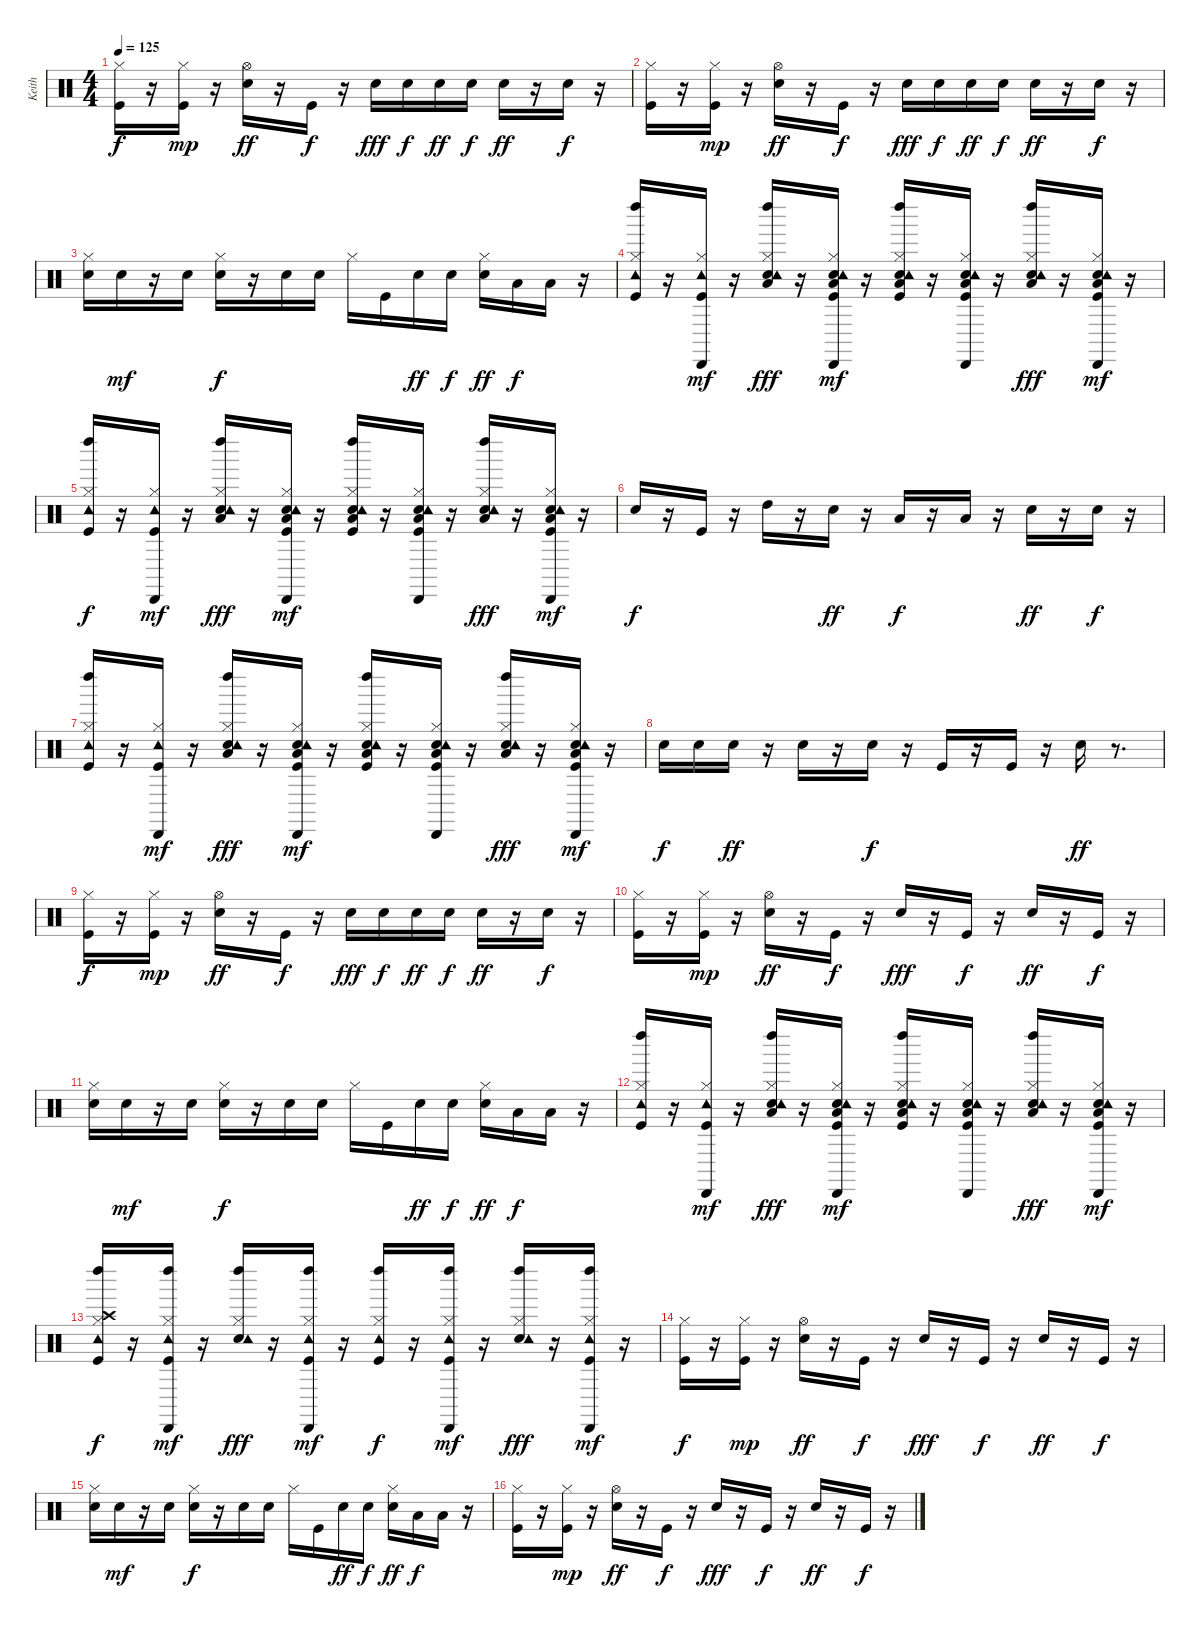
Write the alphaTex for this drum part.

\track ("Keith" "Keith") {instrument percussion}
\staff {score}
\articulation defaults
\ts (4 4)
\tempo 125
\clef neutral
\ks c
("Kick (hit)" "Hi-Hat (closed)").16{dy f} r.16 ("Kick (hit)" "Hi-Hat (closed)").16{dy mp} r.16 ("Snare (hit) 2" "Hi-Hat (open)").16{dy ff} r.16 "Kick (hit)".16{dy f} r.16 "Snare (hit) 2".16{dy fff} "Snare (hit) 2".16{dy f} "Snare (hit) 2".16{dy ff} "Snare (hit) 2".16{dy f} "Snare (hit) 2".16{dy ff} r.16 "Snare (hit) 2".16{dy f} r.16 |
("Kick (hit)" "Hi-Hat (closed)").16 r.16 ("Kick (hit)" "Hi-Hat (closed)").16{dy mp} r.16 ("Snare (hit) 2" "Hi-Hat (open)").16{dy ff} r.16 "Kick (hit)".16{dy f} r.16 "Snare (hit) 2".16{dy fff} "Snare (hit) 2".16{dy f} "Snare (hit) 2".16{dy ff} "Snare (hit) 2".16{dy f} "Snare (hit) 2".16{dy ff} r.16 "Snare (hit) 2".16{dy f} r.16 |
("Snare (hit) 2" "Hi-Hat (closed)").16 "Snare (hit) 2".16{dy mf} r.16 "Snare (hit) 2".16 ("Snare (hit) 2" "Hi-Hat (closed)").16{dy f} r.16 "Snare (hit) 2".16 "Snare (hit) 2".16 "Hi-Hat (closed)".16 "Kick (hit)".16 "Snare (hit) 2".16{dy ff} "Snare (hit) 2".16{dy f} ("Snare (hit) 2" "Hi-Hat (closed)").16{dy ff} "Low Tom (hit)".16{dy f} "Low Floor Tom (hit)".16 r.16 |
("Kick (hit)" "Hi-Hat (closed)" "Tambourine (hit)" "Left Maraca (hit)").16 r.16 ("Kick (hit)" "Hi-Hat (closed)" "Tambourine (hit)" "Cabasa (hit)").16{dy mf} r.16 ("Snare (hit) 2" "Hi-Hat (closed)" "Low Floor Tom (hit)" "Tambourine (hit)" "Left Maraca (hit)").16{dy fff} r.16 ("Kick (hit)" "Snare (hit) 2" "Hi-Hat (closed)" "Low Floor Tom (hit)" "Tambourine (hit)" "Cabasa (hit)").16{dy mf} r.16 ("Kick (hit)" "Snare (hit) 2" "Hi-Hat (closed)" "Low Floor Tom (hit)" "Tambourine (hit)" "Left Maraca (hit)").16 r.16 ("Kick (hit)" "Snare (hit) 2" "Hi-Hat (closed)" "Low Floor Tom (hit)" "Tambourine (hit)" "Cabasa (hit)").16 r.16 ("Snare (hit) 2" "Hi-Hat (closed)" "Low Floor Tom (hit)" "Tambourine (hit)" "Left Maraca (hit)").16{dy fff} r.16 ("Kick (hit)" "Snare (hit) 2" "Hi-Hat (closed)" "Low Floor Tom (hit)" "Tambourine (hit)" "Cabasa (hit)").16{dy mf} r.16 |
("Kick (hit)" "Hi-Hat (closed)" "Tambourine (hit)" "Left Maraca (hit)").16{dy f} r.16 ("Kick (hit)" "Hi-Hat (closed)" "Tambourine (hit)" "Cabasa (hit)").16{dy mf} r.16 ("Snare (hit) 2" "Hi-Hat (closed)" "Low Floor Tom (hit)" "Tambourine (hit)" "Left Maraca (hit)").16{dy fff} r.16 ("Kick (hit)" "Snare (hit) 2" "Hi-Hat (closed)" "Low Floor Tom (hit)" "Tambourine (hit)" "Cabasa (hit)").16{dy mf} r.16 ("Kick (hit)" "Snare (hit) 2" "Hi-Hat (closed)" "Low Floor Tom (hit)" "Tambourine (hit)" "Left Maraca (hit)").16 r.16 ("Kick (hit)" "Snare (hit) 2" "Hi-Hat (closed)" "Low Floor Tom (hit)" "Tambourine (hit)" "Cabasa (hit)").16 r.16 ("Snare (hit) 2" "Hi-Hat (closed)" "Low Floor Tom (hit)" "Tambourine (hit)" "Left Maraca (hit)").16{dy fff} r.16 ("Kick (hit)" "Snare (hit) 2" "Hi-Hat (closed)" "Low Floor Tom (hit)" "Tambourine (hit)" "Cabasa (hit)").16{dy mf} r.16 |
"Snare (hit) 2".16{dy f} r.16 "Kick (hit)".16 r.16 "High Tom (hit)".16 r.16 "Snare (hit) 2".16{dy ff} r.16 "Low Tom (hit)".16{dy f} r.16 "Low Tom (hit)".16 r.16 "Snare (hit) 2".16{dy ff} r.16 "Snare (hit) 2".16{dy f} r.16 |
("Kick (hit)" "Hi-Hat (closed)" "Tambourine (hit)" "Left Maraca (hit)").16 r.16 ("Kick (hit)" "Hi-Hat (closed)" "Tambourine (hit)" "Cabasa (hit)").16{dy mf} r.16 ("Snare (hit) 2" "Hi-Hat (closed)" "Low Floor Tom (hit)" "Tambourine (hit)" "Left Maraca (hit)").16{dy fff} r.16 ("Kick (hit)" "Snare (hit) 2" "Hi-Hat (closed)" "Low Floor Tom (hit)" "Tambourine (hit)" "Cabasa (hit)").16{dy mf} r.16 ("Kick (hit)" "Snare (hit) 2" "Hi-Hat (closed)" "Low Floor Tom (hit)" "Tambourine (hit)" "Left Maraca (hit)").16 r.16 ("Kick (hit)" "Snare (hit) 2" "Hi-Hat (closed)" "Low Floor Tom (hit)" "Tambourine (hit)" "Cabasa (hit)").16 r.16 ("Snare (hit) 2" "Hi-Hat (closed)" "Low Floor Tom (hit)" "Tambourine (hit)" "Left Maraca (hit)").16{dy fff} r.16 ("Kick (hit)" "Snare (hit) 2" "Hi-Hat (closed)" "Low Floor Tom (hit)" "Tambourine (hit)" "Cabasa (hit)").16{dy mf} r.16 |
"Snare (hit) 2".16{dy f} "Snare (hit) 2".16 "Snare (hit) 2".16{dy ff} r.16 "Snare (hit) 2".16 r.16 "Snare (hit) 2".16{dy f} r.16 "Kick (hit)".16 r.16 "Kick (hit)".16 r.16 "Snare (hit) 2".16{dy ff} r.8{d} |
("Kick (hit)" "Hi-Hat (closed)").16{dy f} r.16 ("Kick (hit)" "Hi-Hat (closed)").16{dy mp} r.16 ("Snare (hit) 2" "Hi-Hat (open)").16{dy ff} r.16 "Kick (hit)".16{dy f} r.16 "Snare (hit) 2".16{dy fff} "Snare (hit) 2".16{dy f} "Snare (hit) 2".16{dy ff} "Snare (hit) 2".16{dy f} "Snare (hit) 2".16{dy ff} r.16 "Snare (hit) 2".16{dy f} r.16 |
("Kick (hit)" "Hi-Hat (closed)").16 r.16 ("Kick (hit)" "Hi-Hat (closed)").16{dy mp} r.16 ("Snare (hit) 2" "Hi-Hat (open)").16{dy ff} r.16 "Kick (hit)".16{dy f} r.16 "Snare (hit) 2".16{dy fff} r.16 "Kick (hit)".16{dy f} r.16 "Snare (hit) 2".16{dy ff} r.16 "Kick (hit)".16{dy f} r.16 |
("Snare (hit) 2" "Hi-Hat (closed)").16 "Snare (hit) 2".16{dy mf} r.16 "Snare (hit) 2".16 ("Snare (hit) 2" "Hi-Hat (closed)").16{dy f} r.16 "Snare (hit) 2".16 "Snare (hit) 2".16 "Hi-Hat (closed)".16 "Kick (hit)".16 "Snare (hit) 2".16{dy ff} "Snare (hit) 2".16{dy f} ("Snare (hit) 2" "Hi-Hat (closed)").16{dy ff} "Low Tom (hit)".16{dy f} "Low Floor Tom (hit)".16 r.16 |
("Kick (hit)" "Hi-Hat (closed)" "Tambourine (hit)" "Left Maraca (hit)").16 r.16 ("Kick (hit)" "Hi-Hat (closed)" "Tambourine (hit)" "Cabasa (hit)").16{dy mf} r.16 ("Snare (hit) 2" "Hi-Hat (closed)" "Low Floor Tom (hit)" "Tambourine (hit)" "Left Maraca (hit)").16{dy fff} r.16 ("Kick (hit)" "Snare (hit) 2" "Hi-Hat (closed)" "Low Floor Tom (hit)" "Tambourine (hit)" "Cabasa (hit)").16{dy mf} r.16 ("Kick (hit)" "Snare (hit) 2" "Hi-Hat (closed)" "Low Floor Tom (hit)" "Tambourine (hit)" "Left Maraca (hit)").16 r.16 ("Kick (hit)" "Snare (hit) 2" "Hi-Hat (closed)" "Low Floor Tom (hit)" "Tambourine (hit)" "Cabasa (hit)").16 r.16 ("Snare (hit) 2" "Hi-Hat (closed)" "Low Floor Tom (hit)" "Tambourine (hit)" "Left Maraca (hit)").16{dy fff} r.16 ("Kick (hit)" "Snare (hit) 2" "Hi-Hat (closed)" "Low Floor Tom (hit)" "Tambourine (hit)" "Cabasa (hit)").16{dy mf} r.16 |
("Kick (hit)" "Hi-Hat (closed)" "Crash high (hit)" "Tambourine (hit)" "Left Maraca (hit)").16{dy f} r.16 ("Kick (hit)" "Hi-Hat (closed)" "Tambourine (hit)" "Left Maraca (hit)" "Cabasa (hit)").16{dy mf} r.16 ("Snare (hit) 2" "Hi-Hat (closed)" "Tambourine (hit)" "Left Maraca (hit)").16{dy fff} r.16 ("Kick (hit)" "Hi-Hat (closed)" "Tambourine (hit)" "Left Maraca (hit)" "Cabasa (hit)").16{dy mf} r.16 ("Kick (hit)" "Hi-Hat (closed)" "Tambourine (hit)" "Left Maraca (hit)").16{dy f} r.16 ("Kick (hit)" "Hi-Hat (closed)" "Tambourine (hit)" "Left Maraca (hit)" "Cabasa (hit)").16{dy mf} r.16 ("Snare (hit) 2" "Hi-Hat (closed)" "Tambourine (hit)" "Left Maraca (hit)").16{dy fff} r.16 ("Kick (hit)" "Hi-Hat (closed)" "Tambourine (hit)" "Left Maraca (hit)" "Cabasa (hit)").16{dy mf} r.16 |
("Kick (hit)" "Hi-Hat (closed)").16{dy f} r.16 ("Kick (hit)" "Hi-Hat (closed)").16{dy mp} r.16 ("Snare (hit) 2" "Hi-Hat (open)").16{dy ff} r.16 "Kick (hit)".16{dy f} r.16 "Snare (hit) 2".16{dy fff} r.16 "Kick (hit)".16{dy f} r.16 "Snare (hit) 2".16{dy ff} r.16 "Kick (hit)".16{dy f} r.16 |
("Snare (hit) 2" "Hi-Hat (closed)").16 "Snare (hit) 2".16{dy mf} r.16 "Snare (hit) 2".16 ("Snare (hit) 2" "Hi-Hat (closed)").16{dy f} r.16 "Snare (hit) 2".16 "Snare (hit) 2".16 "Hi-Hat (closed)".16 "Kick (hit)".16 "Snare (hit) 2".16{dy ff} "Snare (hit) 2".16{dy f} ("Snare (hit) 2" "Hi-Hat (closed)").16{dy ff} "Low Tom (hit)".16{dy f} "Low Floor Tom (hit)".16 r.16 |
("Kick (hit)" "Hi-Hat (closed)").16 r.16 ("Kick (hit)" "Hi-Hat (closed)").16{dy mp} r.16 ("Snare (hit) 2" "Hi-Hat (open)").16{dy ff} r.16 "Kick (hit)".16{dy f} r.16 "Snare (hit) 2".16{dy fff} r.16 "Kick (hit)".16{dy f} r.16 "Snare (hit) 2".16{dy ff} r.16 "Kick (hit)".16{dy f} r.16
